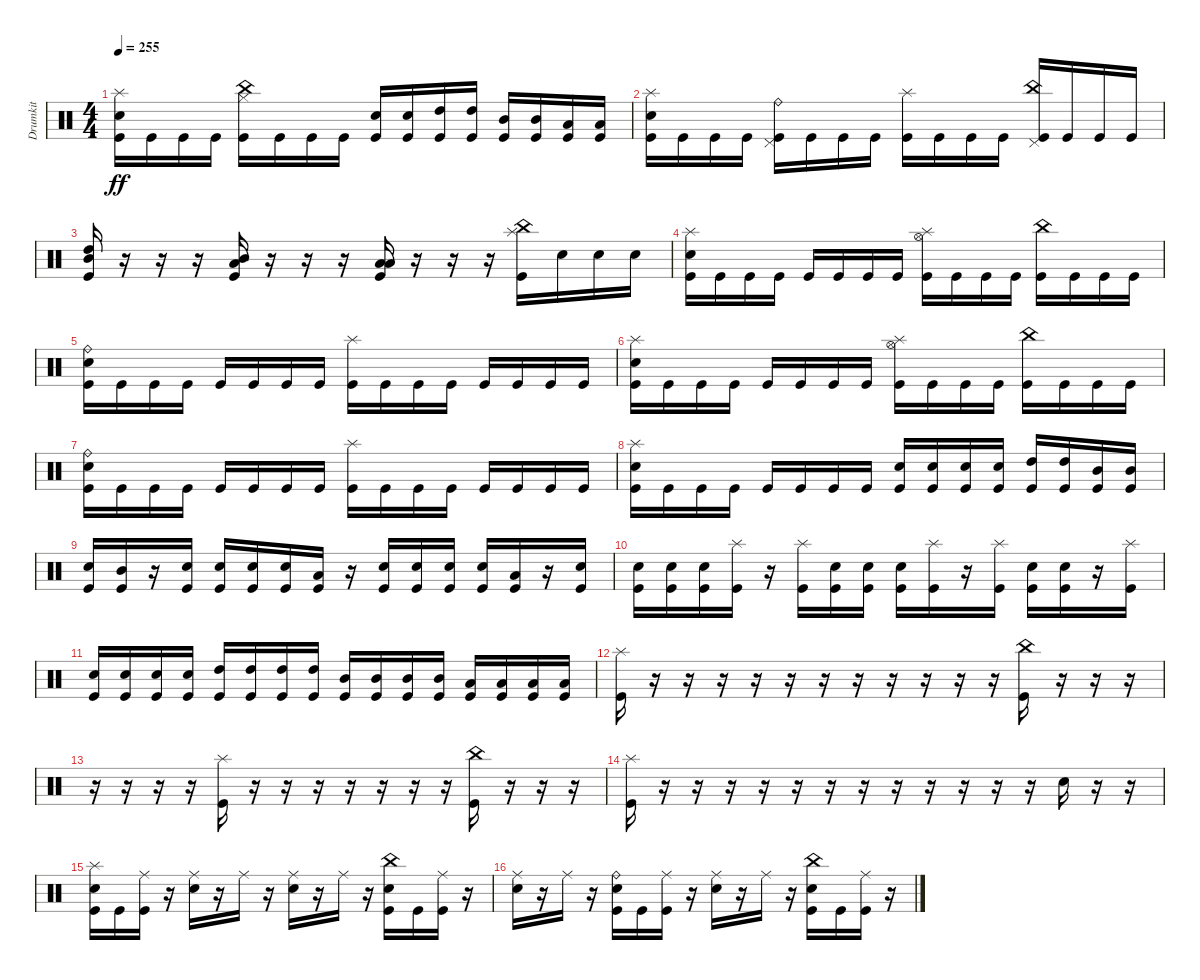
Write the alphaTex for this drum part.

\track ("Drumkit" "Drumkit") {instrument percussion}
\staff {score}
\articulation defaults
\ts (4 4)
\tempo 255
\clef neutral
\ks c
("Splash (hit)" "Snare (hit) 2" "Kick (hit)").16{dy ff} "Kick (hit)".16 "Kick (hit)".16 "Kick (hit)".16 ("Hi-Hat (closed)" "Kick (hit)" "China (hit)").16 "Kick (hit)".16 "Kick (hit)".16 "Kick (hit)".16 ("Snare (hit) 2" "Kick (hit)").16 ("Snare (hit) 2" "Kick (hit)").16 ("High Tom (hit)" "Kick (hit)").16 ("High Tom (hit)" "Kick (hit)").16 ("Mid Tom (hit)" "Kick (hit)").16 ("Mid Tom (hit)" "Kick (hit)").16 ("Low Tom (hit)" "Kick (hit)").16 ("Low Tom (hit)" "Kick (hit)").16 |
("Splash (hit)" "Snare (hit) 2" "Kick (hit)").16 "Kick (hit)".16 "Kick (hit)".16 "Kick (hit)".16 ("Pedal Hi-Hat (hit)" "Ride (bell)" "Kick (hit)").16 "Kick (hit)".16 "Kick (hit)".16 "Kick (hit)".16 ("Splash (hit)" "Kick (hit)").16 "Kick (hit)".16 "Kick (hit)".16 "Kick (hit)".16 ("Pedal Hi-Hat (hit)" "China (hit)" "Kick (hit)").16 "Kick (hit)".16 "Kick (hit)".16 "Kick (hit)".16 |
("High Tom (hit)" "Mid Tom (hit)" "Kick (hit)").16 r.16 r.16 r.16 ("Mid Tom (hit)" "Low Tom (hit)" "Kick (hit)").16 r.16 r.16 r.16 ("Low Floor Tom (hit)" "Low Tom (hit)" "Kick (hit)").16 r.16 r.16 r.16 ("Splash (hit)" "Kick (hit)" "China (hit)").16 "Snare (hit) 2".16 "Snare (hit) 2".16 "Snare (hit) 2".16 |
("Splash (hit)" "Snare (hit) 2" "Kick (hit)").16 "Kick (hit)".16 "Kick (hit)".16 "Kick (hit)".16 "Kick (hit)".16 "Kick (hit)".16 "Kick (hit)".16 "Kick (hit)".16 ("Splash (hit)" "Hi-Hat (open)" "Kick (hit)").16 "Kick (hit)".16 "Kick (hit)".16 "Kick (hit)".16 ("China (hit)" "Kick (hit)").16 "Kick (hit)".16 "Kick (hit)".16 "Kick (hit)".16 |
("Snare (hit) 2" "Ride (bell)" "Kick (hit)").16 "Kick (hit)".16 "Kick (hit)".16 "Kick (hit)".16 "Kick (hit)".16 "Kick (hit)".16 "Kick (hit)".16 "Kick (hit)".16 ("Splash (hit)" "Kick (hit)").16 "Kick (hit)".16 "Kick (hit)".16 "Kick (hit)".16 "Kick (hit)".16 "Kick (hit)".16 "Kick (hit)".16 "Kick (hit)".16 |
("Splash (hit)" "Snare (hit) 2" "Kick (hit)").16 "Kick (hit)".16 "Kick (hit)".16 "Kick (hit)".16 "Kick (hit)".16 "Kick (hit)".16 "Kick (hit)".16 "Kick (hit)".16 ("Splash (hit)" "Hi-Hat (open)" "Kick (hit)").16 "Kick (hit)".16 "Kick (hit)".16 "Kick (hit)".16 ("China (hit)" "Kick (hit)").16 "Kick (hit)".16 "Kick (hit)".16 "Kick (hit)".16 |
("Snare (hit) 2" "Ride (bell)" "Kick (hit)").16 "Kick (hit)".16 "Kick (hit)".16 "Kick (hit)".16 "Kick (hit)".16 "Kick (hit)".16 "Kick (hit)".16 "Kick (hit)".16 ("Splash (hit)" "Kick (hit)").16 "Kick (hit)".16 "Kick (hit)".16 "Kick (hit)".16 "Kick (hit)".16 "Kick (hit)".16 "Kick (hit)".16 "Kick (hit)".16 |
("Splash (hit)" "Snare (hit) 2" "Kick (hit)").16 "Kick (hit)".16 "Kick (hit)".16 "Kick (hit)".16 "Kick (hit)".16 "Kick (hit)".16 "Kick (hit)".16 "Kick (hit)".16 ("Kick (hit)" "Snare (hit) 2").16 ("Kick (hit)" "Snare (hit) 2").16 ("Kick (hit)" "Snare (hit) 2").16 ("Kick (hit)" "Snare (hit) 2").16 ("Kick (hit)" "High Tom (hit)").16 ("Kick (hit)" "High Tom (hit)").16 ("Kick (hit)" "Mid Tom (hit)").16 ("Kick (hit)" "Mid Tom (hit)").16 |
("Snare (hit) 2" "Kick (hit)").16 ("Mid Tom (hit)" "Kick (hit)").16 r.16 ("Snare (hit) 2" "Kick (hit)").16 ("Snare (hit) 2" "Kick (hit)").16 ("Snare (hit) 2" "Kick (hit)").16 ("Snare (hit) 2" "Kick (hit)").16 ("Low Tom (hit)" "Kick (hit)").16 r.16 ("Snare (hit) 2" "Kick (hit)").16 ("Snare (hit) 2" "Kick (hit)").16 ("Snare (hit) 2" "Kick (hit)").16 ("Snare (hit) 2" "Kick (hit)").16 ("Low Tom (hit)" "Kick (hit)").16 r.16 ("Snare (hit) 2" "Kick (hit)").16 |
("Snare (hit) 2" "Kick (hit)").16 ("Snare (hit) 2" "Kick (hit)").16 ("Snare (hit) 2" "Kick (hit)").16 ("Kick (hit)" "Splash (hit)").16 r.16 ("Kick (hit)" "Splash (hit)").16 ("Snare (hit) 2" "Kick (hit)").16 ("Snare (hit) 2" "Kick (hit)").16 ("Snare (hit) 2" "Kick (hit)").16 ("Kick (hit)" "Splash (hit)").16 r.16 ("Kick (hit)" "Splash (hit)").16 ("Snare (hit) 2" "Kick (hit)").16 ("Snare (hit) 2" "Kick (hit)").16 r.16 ("Kick (hit)" "Splash (hit)").16 |
("Snare (hit) 2" "Kick (hit)").16 ("Snare (hit) 2" "Kick (hit)").16 ("Snare (hit) 2" "Kick (hit)").16 ("Snare (hit) 2" "Kick (hit)").16 ("High Tom (hit)" "Kick (hit)").16 ("High Tom (hit)" "Kick (hit)").16 ("High Tom (hit)" "Kick (hit)").16 ("High Tom (hit)" "Kick (hit)").16 ("Mid Tom (hit)" "Kick (hit)").16 ("Mid Tom (hit)" "Kick (hit)").16 ("Mid Tom (hit)" "Kick (hit)").16 ("Mid Tom (hit)" "Kick (hit)").16 ("Low Tom (hit)" "Kick (hit)").16 ("Low Tom (hit)" "Kick (hit)").16 ("Low Tom (hit)" "Kick (hit)").16 ("Low Tom (hit)" "Kick (hit)").16 |
("Splash (hit)" "Kick (hit)").16 r.16 r.16 r.16 r.16 r.16 r.16 r.16 r.16 r.16 r.16 r.16 ("Kick (hit)" "China (hit)").16 r.16 r.16 r.16 |
r.16 r.16 r.16 r.16 ("Splash (hit)" "Kick (hit)").16 r.16 r.16 r.16 r.16 r.16 r.16 r.16 ("Kick (hit)" "China (hit)").16 r.16 r.16 r.16 |
("Splash (hit)" "Kick (hit)").16 r.16 r.16 r.16 r.16 r.16 r.16 r.16 r.16 r.16 r.16 r.16 r.16 "Snare (hit) 2".16 r.16 r.16 |
("Snare (hit) 2" "Splash (hit)" "Kick (hit)").16 "Kick (hit)".16 ("Kick (hit)" "Ride (middle)").16 r.16 ("Snare (hit) 2" "Ride (middle)").16 r.16 "Ride (middle)".16 r.16 ("Snare (hit) 2" "Ride (middle)").16 r.16 "Ride (middle)".16 r.16 ("Snare (hit) 2" "China (hit)" "Kick (hit)").16 "Kick (hit)".16 ("Kick (hit)" "Ride (middle)").16 r.16 |
("Snare (hit) 2" "Ride (middle)").16 r.16 "Ride (middle)".16 r.16 ("Snare (hit) 2" "Ride (bell)" "Kick (hit)").16 "Kick (hit)".16 ("Kick (hit)" "Ride (middle)").16 r.16 ("Snare (hit) 2" "Ride (middle)").16 r.16 "Ride (middle)".16 r.16 ("Snare (hit) 2" "China (hit)" "Kick (hit)").16 "Kick (hit)".16 ("Kick (hit)" "Ride (middle)").16 r.16
